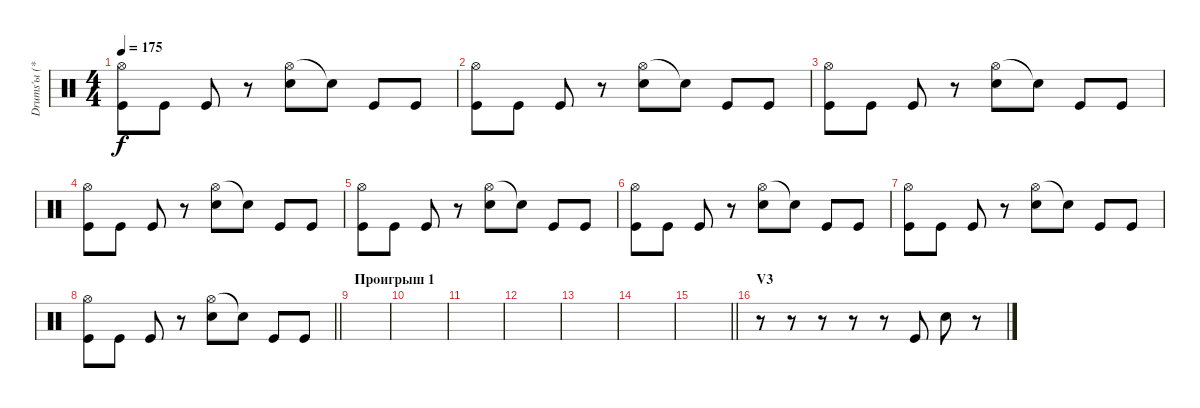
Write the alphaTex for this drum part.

\track ("Drums'ы (***)" "Drums'ы (*") {instrument percussion}
\staff {score}
\articulation defaults
\ts (4 4)
\tempo 175
\clef neutral
\ks c
("Hi-Hat (open)" "Kick (hit)").8{dy f} "Kick (hit)".8 "Kick (hit)".8 r.8 ("Hi-Hat (open)" "Electric Snare (hit)").8 "Snare (hit)"{t}.8 "Kick (hit)".8 "Kick (hit)".8 |
("Hi-Hat (open)" "Kick (hit)").8 "Kick (hit)".8 "Kick (hit)".8 r.8 ("Hi-Hat (open)" "Electric Snare (hit)").8 "Snare (hit)"{t}.8 "Kick (hit)".8 "Kick (hit)".8 |
("Hi-Hat (open)" "Kick (hit)").8 "Kick (hit)".8 "Kick (hit)".8 r.8 ("Hi-Hat (open)" "Electric Snare (hit)").8 "Snare (hit)"{t}.8 "Kick (hit)".8 "Kick (hit)".8 |
("Hi-Hat (open)" "Kick (hit)").8 "Kick (hit)".8 "Kick (hit)".8 r.8 ("Hi-Hat (open)" "Electric Snare (hit)").8 "Snare (hit)"{t}.8 "Kick (hit)".8 "Kick (hit)".8 |
("Hi-Hat (open)" "Kick (hit)").8 "Kick (hit)".8 "Kick (hit)".8 r.8 ("Hi-Hat (open)" "Electric Snare (hit)").8 "Snare (hit)"{t}.8 "Kick (hit)".8 "Kick (hit)".8 |
("Hi-Hat (open)" "Kick (hit)").8 "Kick (hit)".8 "Kick (hit)".8 r.8 ("Hi-Hat (open)" "Electric Snare (hit)").8 "Snare (hit)"{t}.8 "Kick (hit)".8 "Kick (hit)".8 |
("Hi-Hat (open)" "Kick (hit)").8 "Kick (hit)".8 "Kick (hit)".8 r.8 ("Hi-Hat (open)" "Electric Snare (hit)").8 "Snare (hit)"{t}.8 "Kick (hit)".8 "Kick (hit)".8 |
\barLineRight lightlight
("Hi-Hat (open)" "Kick (hit)").8 "Kick (hit)".8 "Kick (hit)".8 r.8 ("Hi-Hat (open)" "Electric Snare (hit)").8 "Snare (hit)"{t}.8 "Kick (hit)".8 "Kick (hit)".8 |
\section ("" "Проигрыш 1")
|
|
|
|
|
|
\barLineRight lightlight
|
\section ("" "V3")
r.8 r.8 r.8 r.8 r.8 "Kick (hit)".8 "Electric Snare (hit)".8 r.8
